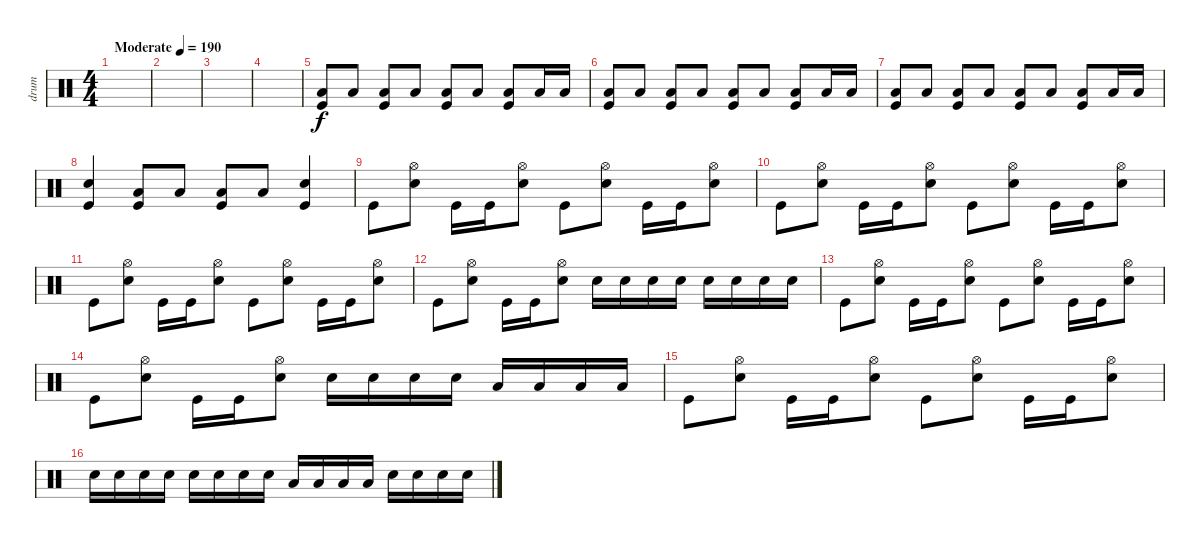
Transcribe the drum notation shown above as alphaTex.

\track ("drum" "drum") {instrument percussion}
\staff {score}
\articulation defaults
\ts (4 4)
\tempo (190 "Moderate")
\clef neutral
\ks c
|
|
|
|
("Low Tom (hit)" "Kick (hit)").8 "Low Tom (hit)".8 ("Low Tom (hit)" "Kick (hit)").8 "Low Tom (hit)".8 ("Low Tom (hit)" "Kick (hit)").8 "Low Tom (hit)".8 ("Low Tom (hit)" "Kick (hit)").8 "Low Tom (hit)".16 "Low Tom (hit)".16 |
("Low Tom (hit)" "Kick (hit)").8 "Low Tom (hit)".8 ("Low Tom (hit)" "Kick (hit)").8 "Low Tom (hit)".8 ("Low Tom (hit)" "Kick (hit)").8 "Low Tom (hit)".8 ("Low Tom (hit)" "Kick (hit)").8 "Low Tom (hit)".16 "Low Tom (hit)".16 |
("Low Tom (hit)" "Kick (hit)").8 "Low Tom (hit)".8 ("Low Tom (hit)" "Kick (hit)").8 "Low Tom (hit)".8 ("Low Tom (hit)" "Kick (hit)").8 "Low Tom (hit)".8 ("Low Tom (hit)" "Kick (hit)").8 "Low Tom (hit)".16 "Low Tom (hit)".16 |
("Snare (hit) 2" "Kick (hit)").4 ("Low Tom (hit)" "Kick (hit)").8 "Low Tom (hit)".8 ("Low Tom (hit)" "Kick (hit)").8 "Low Tom (hit)".8 ("Snare (hit) 2" "Kick (hit)").4 |
"Kick (hit)".8 ("Hi-Hat (open)" "Snare (hit) 2").8 "Kick (hit)".16 "Kick (hit)".16 ("Hi-Hat (open)" "Snare (hit) 2").8 "Kick (hit)".8 ("Hi-Hat (open)" "Snare (hit) 2").8 "Kick (hit)".16 "Kick (hit)".16 ("Hi-Hat (open)" "Snare (hit) 2").8 |
"Kick (hit)".8 ("Hi-Hat (open)" "Snare (hit) 2").8 "Kick (hit)".16 "Kick (hit)".16 ("Hi-Hat (open)" "Snare (hit) 2").8 "Kick (hit)".8 ("Hi-Hat (open)" "Snare (hit) 2").8 "Kick (hit)".16 "Kick (hit)".16 ("Hi-Hat (open)" "Snare (hit) 2").8 |
"Kick (hit)".8 ("Hi-Hat (open)" "Snare (hit) 2").8 "Kick (hit)".16 "Kick (hit)".16 ("Hi-Hat (open)" "Snare (hit) 2").8 "Kick (hit)".8 ("Hi-Hat (open)" "Snare (hit) 2").8 "Kick (hit)".16 "Kick (hit)".16 ("Hi-Hat (open)" "Snare (hit) 2").8 |
"Kick (hit)".8 ("Hi-Hat (open)" "Snare (hit) 2").8 "Kick (hit)".16 "Kick (hit)".16 ("Hi-Hat (open)" "Snare (hit) 2").8 "Snare (hit) 2".16 "Snare (hit) 2".16 "Snare (hit) 2".16 "Snare (hit) 2".16 "Snare (hit) 2".16 "Snare (hit) 2".16 "Snare (hit) 2".16 "Snare (hit) 2".16 |
"Kick (hit)".8 ("Hi-Hat (open)" "Snare (hit) 2").8 "Kick (hit)".16 "Kick (hit)".16 ("Hi-Hat (open)" "Snare (hit) 2").8 "Kick (hit)".8 ("Hi-Hat (open)" "Snare (hit) 2").8 "Kick (hit)".16 "Kick (hit)".16 ("Hi-Hat (open)" "Snare (hit) 2").8 |
"Kick (hit)".8 ("Hi-Hat (open)" "Snare (hit) 2").8 "Kick (hit)".16 "Kick (hit)".16 ("Hi-Hat (open)" "Snare (hit) 2").8 "Snare (hit) 2".16 "Snare (hit) 2".16 "Snare (hit) 2".16 "Snare (hit) 2".16 "Low Tom (hit)".16 "Low Tom (hit)".16 "Low Tom (hit)".16 "Low Tom (hit)".16 |
"Kick (hit)".8 ("Hi-Hat (open)" "Snare (hit) 2").8 "Kick (hit)".16 "Kick (hit)".16 ("Hi-Hat (open)" "Snare (hit) 2").8 "Kick (hit)".8 ("Hi-Hat (open)" "Snare (hit) 2").8 "Kick (hit)".16 "Kick (hit)".16 ("Hi-Hat (open)" "Snare (hit) 2").8 |
"Snare (hit) 2".16 "Snare (hit) 2".16 "Snare (hit) 2".16 "Snare (hit) 2".16 "Snare (hit) 2".16 "Snare (hit) 2".16 "Snare (hit) 2".16 "Snare (hit) 2".16 "Low Tom (hit)".16 "Low Tom (hit)".16 "Low Tom (hit)".16 "Low Tom (hit)".16 "Snare (hit) 2".16 "Snare (hit) 2".16 "Snare (hit) 2".16 "Snare (hit) 2".16
